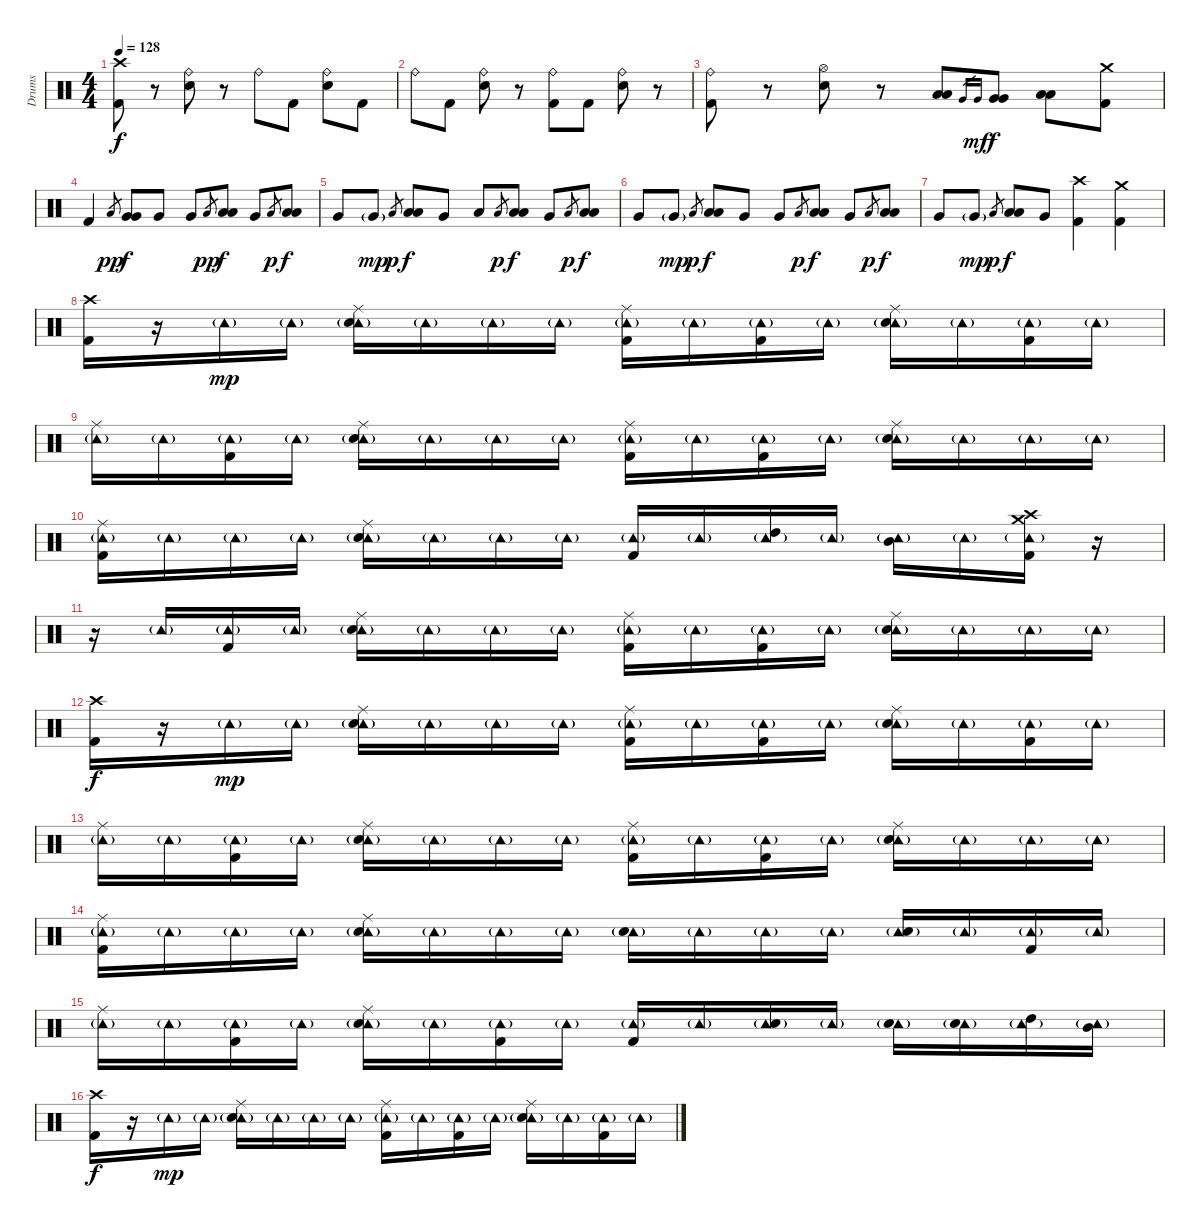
\track ("Drums" "Drums") {instrument percussion}
\staff {score}
\articulation defaults
\ts (4 4)
\tempo 128
\clef neutral
\ks c
("Crash high (hit)" "Kick (hit) 2").8{dy f} r.8 ("Ride (bell)" "Electric Snare (hit)").8 r.8 "Ride (bell)".8 "Kick (hit) 2".8 ("Ride (bell)" "Electric Snare (hit)").8 "Kick (hit) 2".8 |
"Ride (bell)".8 "Kick (hit) 2".8 ("Ride (bell)" "Electric Snare (hit)").8 r.8 ("Ride (bell)" "Kick (hit) 2").8 "Kick (hit) 2".8 ("Ride (bell)" "Electric Snare (hit)").8 r.8 |
("Ride (bell)" "Kick (hit) 2").8 r.8 ("Hi-Hat (open)" "Electric Snare (hit)").8 r.8 ("Low Tom (hit)" "Low Tom (hit)").8 "Very Low Tom (hit)".16{gr} "Very Low Tom (hit)".16{gr dy mf} ("Very Low Tom (hit)" "Very Low Tom (hit)").8{dy f} ("Low Floor Tom (hit)" "Low Floor Tom (hit)").8 ("Crash medium (hit)" "Kick (hit) 2").8 |
"Kick (hit) 2".4 "Low Tom (hit)".8{gr dy pp} ("Very Low Tom (hit)" "Very Low Tom (hit)").8{dy f} "Very Low Tom (hit)".8 "Very Low Tom (hit)".8 "Low Tom (hit)".8{gr dy pp} ("Low Tom (hit)" "Low Tom (hit)").8{dy f} "Very Low Tom (hit)".8 "Low Tom (hit)".8{gr dy p} ("Low Tom (hit)" "Low Tom (hit)").8{dy f} |
"Very Low Tom (hit)".8 "Very Low Tom (hit)"{g}.8{dy mp} "Low Tom (hit)".8{gr dy p} ("Low Tom (hit)" "Low Tom (hit)").8{dy f} "Very Low Tom (hit)".8 "Low Floor Tom (hit)".8 "Low Tom (hit)".8{gr dy p} ("Low Tom (hit)" "Low Tom (hit)").8{dy f} "Very Low Tom (hit)".8 "Low Tom (hit)".8{gr dy p} ("Low Tom (hit)" "Low Tom (hit)").8{dy f} |
"Very Low Tom (hit)".8 "Very Low Tom (hit)"{g}.8{dy mp} "Low Tom (hit)".8{gr dy p} ("Low Tom (hit)" "Low Tom (hit)").8{dy f} "Very Low Tom (hit)".8 "Very Low Tom (hit)".8 "Low Tom (hit)".8{gr dy p} ("Low Tom (hit)" "Low Tom (hit)").8{dy f} "Very Low Tom (hit)".8 "Low Tom (hit)".8{gr dy p} ("Low Tom (hit)" "Low Tom (hit)").8{dy f} |
"Very Low Tom (hit)".8 "Very Low Tom (hit)"{g}.8{dy mp} "Low Tom (hit)".8{gr dy p} ("Low Tom (hit)" "Low Tom (hit)").8{dy f} "Very Low Tom (hit)".8 ("Crash high (hit)" "Kick (hit) 2").4 ("Crash medium (hit)" "Kick (hit) 2").4 |
("Crash high (hit)" "Kick (hit) 2").16 r.16 "Tambourine (hit)"{g}.16{dy mp} "Tambourine (hit)"{g}.16 ("Ride (middle)" "Tambourine (hit)"{g} "Electric Snare (hit)").16 "Tambourine (hit)"{g}.16 "Tambourine (hit)"{g}.16 "Tambourine (hit)"{g}.16 ("Ride (middle)" "Tambourine (hit)"{g} "Kick (hit) 2").16 "Tambourine (hit)"{g}.16 ("Tambourine (hit)"{g} "Kick (hit) 2").16 "Tambourine (hit)"{g}.16 ("Ride (middle)" "Tambourine (hit)"{g} "Electric Snare (hit)").16 "Tambourine (hit)"{g}.16 ("Tambourine (hit)"{g} "Kick (hit) 2").16 "Tambourine (hit)"{g}.16 |
("Ride (middle)" "Tambourine (hit)"{g}).16 "Tambourine (hit)"{g}.16 ("Tambourine (hit)"{g} "Kick (hit) 2").16 "Tambourine (hit)"{g}.16 ("Ride (middle)" "Tambourine (hit)"{g} "Electric Snare (hit)").16 "Tambourine (hit)"{g}.16 "Tambourine (hit)"{g}.16 "Tambourine (hit)"{g}.16 ("Ride (middle)" "Tambourine (hit)"{g} "Kick (hit) 2").16 "Tambourine (hit)"{g}.16 ("Tambourine (hit)"{g} "Kick (hit) 2").16 "Tambourine (hit)"{g}.16 ("Ride (middle)" "Tambourine (hit)"{g} "Electric Snare (hit)").16 "Tambourine (hit)"{g}.16 "Tambourine (hit)"{g}.16 "Tambourine (hit)"{g}.16 |
("Ride (middle)" "Tambourine (hit)"{g} "Kick (hit) 2").16 "Tambourine (hit)"{g}.16 "Tambourine (hit)"{g}.16 "Tambourine (hit)"{g}.16 ("Ride (middle)" "Tambourine (hit)"{g} "Electric Snare (hit)").16 "Tambourine (hit)"{g}.16 "Tambourine (hit)"{g}.16 "Tambourine (hit)"{g}.16 ("Tambourine (hit)"{g} "Kick (hit) 2").16 "Tambourine (hit)"{g}.16 ("Tambourine (hit)"{g} "High Tom (hit)").16 "Tambourine (hit)"{g}.16 ("Tambourine (hit)"{g} "Mid Tom (hit)").16 "Tambourine (hit)"{g}.16 ("Crash medium (hit)" "Crash high (hit)" "Tambourine (hit)"{g} "Kick (hit) 2").16 r.16 |
r.16 "Tambourine (hit)"{g}.16 ("Tambourine (hit)"{g} "Kick (hit) 2").16 "Tambourine (hit)"{g}.16 ("Ride (middle)" "Tambourine (hit)"{g} "Electric Snare (hit)").16 "Tambourine (hit)"{g}.16 "Tambourine (hit)"{g}.16 "Tambourine (hit)"{g}.16 ("Ride (middle)" "Tambourine (hit)"{g} "Kick (hit) 2").16 "Tambourine (hit)"{g}.16 ("Tambourine (hit)"{g} "Kick (hit) 2").16 "Tambourine (hit)"{g}.16 ("Ride (middle)" "Tambourine (hit)"{g} "Electric Snare (hit)").16 "Tambourine (hit)"{g}.16 "Tambourine (hit)"{g}.16 "Tambourine (hit)"{g}.16 |
("Crash high (hit)" "Kick (hit) 2").16{dy f} r.16 "Tambourine (hit)"{g}.16{dy mp} "Tambourine (hit)"{g}.16 ("Ride (middle)" "Tambourine (hit)"{g} "Electric Snare (hit)").16 "Tambourine (hit)"{g}.16 "Tambourine (hit)"{g}.16 "Tambourine (hit)"{g}.16 ("Ride (middle)" "Tambourine (hit)"{g} "Kick (hit) 2").16 "Tambourine (hit)"{g}.16 ("Tambourine (hit)"{g} "Kick (hit) 2").16 "Tambourine (hit)"{g}.16 ("Ride (middle)" "Tambourine (hit)"{g} "Electric Snare (hit)").16 "Tambourine (hit)"{g}.16 ("Tambourine (hit)"{g} "Kick (hit) 2").16 "Tambourine (hit)"{g}.16 |
("Ride (middle)" "Tambourine (hit)"{g}).16 "Tambourine (hit)"{g}.16 ("Tambourine (hit)"{g} "Kick (hit) 2").16 "Tambourine (hit)"{g}.16 ("Ride (middle)" "Tambourine (hit)"{g} "Electric Snare (hit)").16 "Tambourine (hit)"{g}.16 "Tambourine (hit)"{g}.16 "Tambourine (hit)"{g}.16 ("Ride (middle)" "Tambourine (hit)"{g} "Kick (hit) 2").16 "Tambourine (hit)"{g}.16 ("Tambourine (hit)"{g} "Kick (hit) 2").16 "Tambourine (hit)"{g}.16 ("Ride (middle)" "Tambourine (hit)"{g} "Electric Snare (hit)").16 "Tambourine (hit)"{g}.16 "Tambourine (hit)"{g}.16 "Tambourine (hit)"{g}.16 |
("Ride (middle)" "Tambourine (hit)"{g} "Kick (hit) 2").16 "Tambourine (hit)"{g}.16 "Tambourine (hit)"{g}.16 "Tambourine (hit)"{g}.16 ("Ride (middle)" "Tambourine (hit)"{g} "Electric Snare (hit)").16 "Tambourine (hit)"{g}.16 "Tambourine (hit)"{g}.16 "Tambourine (hit)"{g}.16 ("Tambourine (hit)"{g} "Electric Snare (hit)").16 "Tambourine (hit)"{g}.16 "Tambourine (hit)"{g}.16 "Tambourine (hit)"{g}.16 ("Tambourine (hit)"{g} "Electric Snare (hit)").16 "Tambourine (hit)"{g}.16 ("Tambourine (hit)"{g} "Kick (hit) 2").16 "Tambourine (hit)"{g}.16 |
("Ride (middle)" "Tambourine (hit)"{g}).16 "Tambourine (hit)"{g}.16 ("Tambourine (hit)"{g} "Kick (hit) 2").16 "Tambourine (hit)"{g}.16 ("Ride (middle)" "Tambourine (hit)"{g} "Electric Snare (hit)").16 "Tambourine (hit)"{g}.16 ("Tambourine (hit)"{g} "Kick (hit) 2").16 "Tambourine (hit)"{g}.16 ("Tambourine (hit)"{g} "Kick (hit) 2").16 "Tambourine (hit)"{g}.16 ("Tambourine (hit)"{g} "Electric Snare (hit)").16 "Tambourine (hit)"{g}.16 ("Tambourine (hit)"{g} "Electric Snare (hit)").16 ("Tambourine (hit)"{g} "Electric Snare (hit)").16 ("Tambourine (hit)"{g} "High Tom (hit)").16 ("Tambourine (hit)"{g} "Mid Tom (hit)").16 |
("Crash high (hit)" "Kick (hit) 2").16{dy f} r.16 "Tambourine (hit)"{g}.16{dy mp} "Tambourine (hit)"{g}.16 ("Ride (middle)" "Tambourine (hit)"{g} "Electric Snare (hit)").16 "Tambourine (hit)"{g}.16 "Tambourine (hit)"{g}.16 "Tambourine (hit)"{g}.16 ("Ride (middle)" "Tambourine (hit)"{g} "Kick (hit) 2").16 "Tambourine (hit)"{g}.16 ("Tambourine (hit)"{g} "Kick (hit) 2").16 "Tambourine (hit)"{g}.16 ("Ride (middle)" "Tambourine (hit)"{g} "Electric Snare (hit)").16 "Tambourine (hit)"{g}.16 ("Tambourine (hit)"{g} "Kick (hit) 2").16 "Tambourine (hit)"{g}.16
